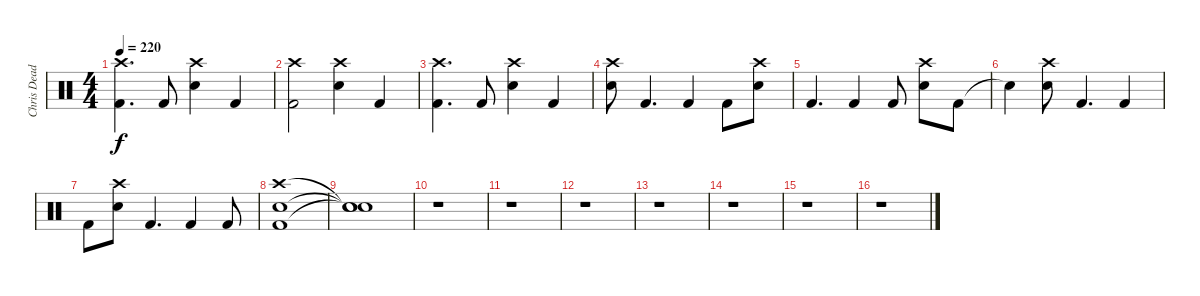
\track ("Chris Dead" "Chris Dead") {instrument percussion}
\staff {score}
\articulation defaults
\ts (4 4)
\tempo 220
\clef neutral
\ks c
("Crash high (hit)" "Kick (hit) 2").4{d dy f} "Kick (hit) 2".8 ("Crash high (hit)" "Electric Snare (hit)").4 "Kick (hit) 2".4 |
("Crash high (hit)" "Kick (hit) 2").2 ("Crash high (hit)" "Electric Snare (hit)").4 "Kick (hit) 2".4 |
("Crash high (hit)" "Kick (hit) 2").4{d} "Kick (hit) 2".8 ("Crash high (hit)" "Electric Snare (hit)").4 "Kick (hit) 2".4 |
("Crash high (hit)" "Electric Snare (hit)").8 "Kick (hit) 2".4{d} "Kick (hit) 2".4 "Kick (hit) 2".8 ("Crash high (hit)" "Electric Snare (hit)").8 |
"Kick (hit) 2".4{d} "Kick (hit) 2".4 "Kick (hit) 2".8 ("Crash high (hit)" "Electric Snare (hit)").8 "Kick (hit) 2".8 |
"Snare (hit)"{t}.4 ("Crash high (hit)" "Electric Snare (hit)").8 "Kick (hit) 2".4{d} "Kick (hit) 2".4 |
"Kick (hit) 2".8 ("Crash high (hit)" "Electric Snare (hit)").8 "Kick (hit) 2".4{d} "Kick (hit) 2".4 "Kick (hit) 2".8 |
("Crash high (hit)" "Electric Snare (hit)" "Kick (hit) 2").1 |
("Snare (hit)"{t} "Snare (hit)"{t} "Snare (hit)"{t}).1 |
r.1 |
r.1 |
r.1 |
r.1 |
r.1 |
r.1 |
r.1
